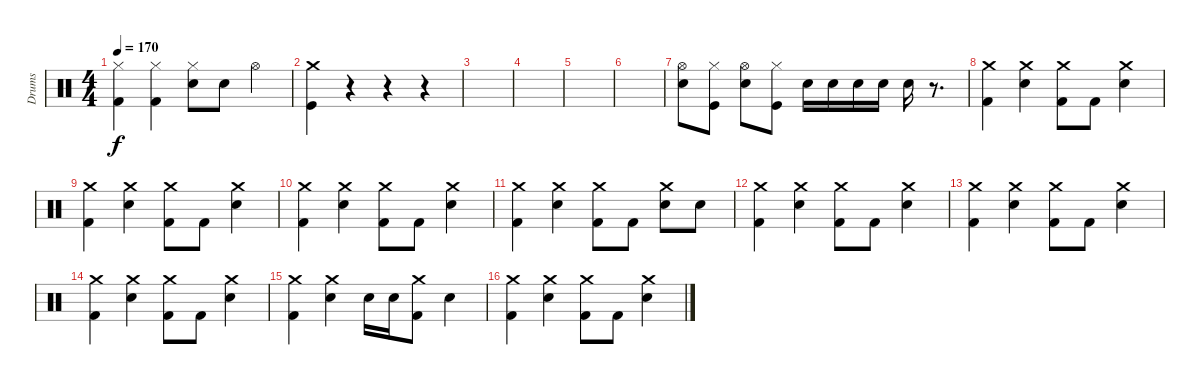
\track ("Drums" "Drums") {instrument percussion}
\staff {score}
\articulation defaults
\ts (4 4)
\tempo 170
\clef neutral
\ks c
("Hi-Hat (closed)" "Kick (hit) 2").4{dy f} ("Hi-Hat (closed)" "Kick (hit) 2").4 ("Hi-Hat (closed)" "Electric Snare (hit)").8 "Electric Snare (hit)".8 "Hi-Hat (open)".4 |
("Crash medium (hit)" "Kick (hit)").4 r.4 r.4 r.4 |
|
|
|
|
("Hi-Hat (open)" "Electric Snare (hit)").8 ("Hi-Hat (closed)" "Kick (hit)").8 ("Hi-Hat (open)" "Electric Snare (hit)").8 ("Hi-Hat (closed)" "Kick (hit)").8 "Electric Snare (hit)".16 "Electric Snare (hit)".16 "Electric Snare (hit)".16 "Electric Snare (hit)".16 "Electric Snare (hit)".16 r.8{d} |
("Crash medium (hit)" "Kick (hit) 2").4 ("Crash medium (hit)" "Electric Snare (hit)").4 ("Crash medium (hit)" "Kick (hit) 2").8 "Kick (hit) 2".8 ("Crash medium (hit)" "Electric Snare (hit)").4 |
("Crash medium (hit)" "Kick (hit) 2").4 ("Crash medium (hit)" "Electric Snare (hit)").4 ("Crash medium (hit)" "Kick (hit) 2").8 "Kick (hit) 2".8 ("Crash medium (hit)" "Electric Snare (hit)").4 |
("Crash medium (hit)" "Kick (hit) 2").4 ("Crash medium (hit)" "Electric Snare (hit)").4 ("Crash medium (hit)" "Kick (hit) 2").8 "Kick (hit) 2".8 ("Crash medium (hit)" "Electric Snare (hit)").4 |
("Crash medium (hit)" "Kick (hit) 2").4 ("Crash medium (hit)" "Electric Snare (hit)").4 ("Crash medium (hit)" "Kick (hit) 2").8 "Kick (hit) 2".8 ("Crash medium (hit)" "Electric Snare (hit)").8 "Electric Snare (hit)".8 |
("Crash medium (hit)" "Kick (hit) 2").4 ("Crash medium (hit)" "Electric Snare (hit)").4 ("Crash medium (hit)" "Kick (hit) 2").8 "Kick (hit) 2".8 ("Crash medium (hit)" "Electric Snare (hit)").4 |
("Crash medium (hit)" "Kick (hit) 2").4 ("Crash medium (hit)" "Electric Snare (hit)").4 ("Crash medium (hit)" "Kick (hit) 2").8 "Kick (hit) 2".8 ("Crash medium (hit)" "Electric Snare (hit)").4 |
("Crash medium (hit)" "Kick (hit) 2").4 ("Crash medium (hit)" "Electric Snare (hit)").4 ("Crash medium (hit)" "Kick (hit) 2").8 "Kick (hit) 2".8 ("Crash medium (hit)" "Electric Snare (hit)").4 |
("Crash medium (hit)" "Kick (hit) 2").4 ("Crash medium (hit)" "Electric Snare (hit)").4 "Electric Snare (hit)".16 "Electric Snare (hit)".16 ("Crash medium (hit)" "Kick (hit) 2").8 "Electric Snare (hit)".4 |
("Crash medium (hit)" "Kick (hit) 2").4 ("Crash medium (hit)" "Electric Snare (hit)").4 ("Crash medium (hit)" "Kick (hit) 2").8 "Kick (hit) 2".8 ("Crash medium (hit)" "Electric Snare (hit)").4
